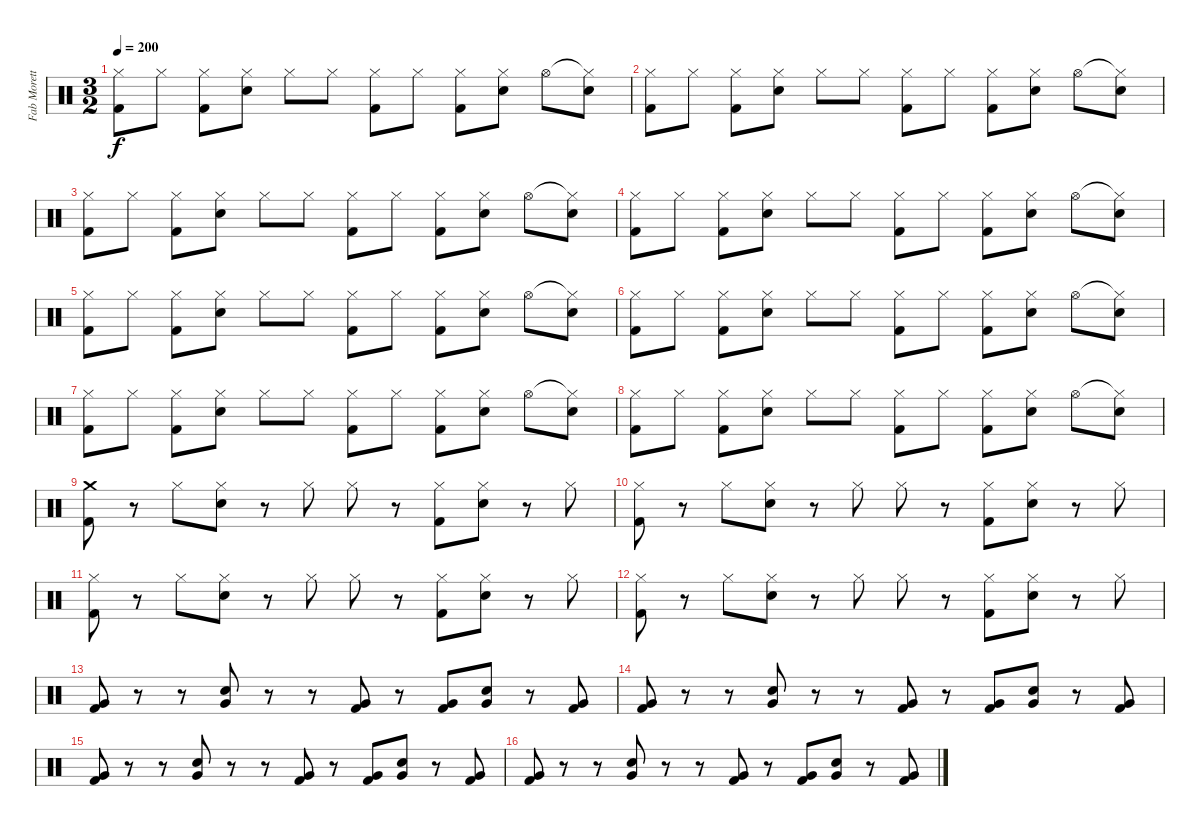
\track ("Fab Moretti" "Fab Morett") {instrument percussion}
\staff {score}
\articulation defaults
\ts (3 2)
\tempo 200
\clef neutral
\ks c
("Hi-Hat (closed)" "Kick (hit) 2").8{dy f} "Hi-Hat (closed)".8 ("Hi-Hat (closed)" "Kick (hit) 2").8 ("Hi-Hat (closed)" "Snare (hit) 2").8 "Hi-Hat (closed)".8 "Hi-Hat (closed)".8 ("Hi-Hat (closed)" "Kick (hit) 2").8 "Hi-Hat (closed)".8 ("Hi-Hat (closed)" "Kick (hit) 2").8 ("Hi-Hat (closed)" "Snare (hit) 2").8 "Hi-Hat (open)".8 ("Hi-Hat (closed)"{t} "Snare (hit) 2").8 |
("Hi-Hat (closed)" "Kick (hit) 2").8 "Hi-Hat (closed)".8 ("Hi-Hat (closed)" "Kick (hit) 2").8 ("Hi-Hat (closed)" "Snare (hit) 2").8 "Hi-Hat (closed)".8 "Hi-Hat (closed)".8 ("Hi-Hat (closed)" "Kick (hit) 2").8 "Hi-Hat (closed)".8 ("Hi-Hat (closed)" "Kick (hit) 2").8 ("Hi-Hat (closed)" "Snare (hit) 2").8 "Hi-Hat (open)".8 ("Hi-Hat (closed)"{t} "Snare (hit) 2").8 |
("Hi-Hat (closed)" "Kick (hit) 2").8 "Hi-Hat (closed)".8 ("Hi-Hat (closed)" "Kick (hit) 2").8 ("Hi-Hat (closed)" "Snare (hit) 2").8 "Hi-Hat (closed)".8 "Hi-Hat (closed)".8 ("Hi-Hat (closed)" "Kick (hit) 2").8 "Hi-Hat (closed)".8 ("Hi-Hat (closed)" "Kick (hit) 2").8 ("Hi-Hat (closed)" "Snare (hit) 2").8 "Hi-Hat (open)".8 ("Hi-Hat (closed)"{t} "Snare (hit) 2").8 |
("Hi-Hat (closed)" "Kick (hit) 2").8 "Hi-Hat (closed)".8 ("Hi-Hat (closed)" "Kick (hit) 2").8 ("Hi-Hat (closed)" "Snare (hit) 2").8 "Hi-Hat (closed)".8 "Hi-Hat (closed)".8 ("Hi-Hat (closed)" "Kick (hit) 2").8 "Hi-Hat (closed)".8 ("Hi-Hat (closed)" "Kick (hit) 2").8 ("Hi-Hat (closed)" "Snare (hit) 2").8 "Hi-Hat (open)".8 ("Hi-Hat (closed)"{t} "Snare (hit) 2").8 |
("Hi-Hat (closed)" "Kick (hit) 2").8 "Hi-Hat (closed)".8 ("Hi-Hat (closed)" "Kick (hit) 2").8 ("Hi-Hat (closed)" "Snare (hit) 2").8 "Hi-Hat (closed)".8 "Hi-Hat (closed)".8 ("Hi-Hat (closed)" "Kick (hit) 2").8 "Hi-Hat (closed)".8 ("Hi-Hat (closed)" "Kick (hit) 2").8 ("Hi-Hat (closed)" "Snare (hit) 2").8 "Hi-Hat (open)".8 ("Hi-Hat (closed)"{t} "Snare (hit) 2").8 |
("Hi-Hat (closed)" "Kick (hit) 2").8 "Hi-Hat (closed)".8 ("Hi-Hat (closed)" "Kick (hit) 2").8 ("Hi-Hat (closed)" "Snare (hit) 2").8 "Hi-Hat (closed)".8 "Hi-Hat (closed)".8 ("Hi-Hat (closed)" "Kick (hit) 2").8 "Hi-Hat (closed)".8 ("Hi-Hat (closed)" "Kick (hit) 2").8 ("Hi-Hat (closed)" "Snare (hit) 2").8 "Hi-Hat (open)".8 ("Hi-Hat (closed)"{t} "Snare (hit) 2").8 |
("Hi-Hat (closed)" "Kick (hit) 2").8 "Hi-Hat (closed)".8 ("Hi-Hat (closed)" "Kick (hit) 2").8 ("Hi-Hat (closed)" "Snare (hit) 2").8 "Hi-Hat (closed)".8 "Hi-Hat (closed)".8 ("Hi-Hat (closed)" "Kick (hit) 2").8 "Hi-Hat (closed)".8 ("Hi-Hat (closed)" "Kick (hit) 2").8 ("Hi-Hat (closed)" "Snare (hit) 2").8 "Hi-Hat (open)".8 ("Hi-Hat (closed)"{t} "Snare (hit) 2").8 |
("Hi-Hat (closed)" "Kick (hit) 2").8 "Hi-Hat (closed)".8 ("Hi-Hat (closed)" "Kick (hit) 2").8 ("Hi-Hat (closed)" "Snare (hit) 2").8 "Hi-Hat (closed)".8 "Hi-Hat (closed)".8 ("Hi-Hat (closed)" "Kick (hit) 2").8 "Hi-Hat (closed)".8 ("Hi-Hat (closed)" "Kick (hit) 2").8 ("Hi-Hat (closed)" "Snare (hit) 2").8 "Hi-Hat (open)".8 ("Hi-Hat (closed)"{t} "Snare (hit) 2").8 |
("Crash medium (hit)" "Kick (hit) 2").8 r.8 "Hi-Hat (closed)".8 ("Hi-Hat (closed)" "Snare (hit) 2").8 r.8 "Hi-Hat (closed)".8 "Hi-Hat (closed)".8 r.8 ("Hi-Hat (closed)" "Kick (hit) 2").8 ("Hi-Hat (closed)" "Snare (hit) 2").8 r.8 "Hi-Hat (closed)".8 |
("Hi-Hat (closed)" "Kick (hit) 2").8 r.8 "Hi-Hat (closed)".8 ("Hi-Hat (closed)" "Snare (hit) 2").8 r.8 "Hi-Hat (closed)".8 "Hi-Hat (closed)".8 r.8 ("Hi-Hat (closed)" "Kick (hit) 2").8 ("Hi-Hat (closed)" "Snare (hit) 2").8 r.8 "Hi-Hat (closed)".8 |
("Hi-Hat (closed)" "Kick (hit) 2").8 r.8 "Hi-Hat (closed)".8 ("Hi-Hat (closed)" "Snare (hit) 2").8 r.8 "Hi-Hat (closed)".8 "Hi-Hat (closed)".8 r.8 ("Hi-Hat (closed)" "Kick (hit) 2").8 ("Hi-Hat (closed)" "Snare (hit) 2").8 r.8 "Hi-Hat (closed)".8 |
("Hi-Hat (closed)" "Kick (hit) 2").8 r.8 "Hi-Hat (closed)".8 ("Hi-Hat (closed)" "Snare (hit) 2").8 r.8 "Hi-Hat (closed)".8 "Hi-Hat (closed)".8 r.8 ("Hi-Hat (closed)" "Kick (hit) 2").8 ("Hi-Hat (closed)" "Snare (hit) 2").8 r.8 "Hi-Hat (closed)".8 |
("Very Low Tom (hit)" "Kick (hit) 2").8 r.8 r.8 ("Very Low Tom (hit)" "Snare (hit) 2").8 r.8 r.8 ("Very Low Tom (hit)" "Kick (hit) 2").8 r.8 ("Very Low Tom (hit)" "Kick (hit) 2").8 ("Very Low Tom (hit)" "Snare (hit) 2").8 r.8 ("Very Low Tom (hit)" "Kick (hit) 2").8 |
("Very Low Tom (hit)" "Kick (hit) 2").8 r.8 r.8 ("Very Low Tom (hit)" "Snare (hit) 2").8 r.8 r.8 ("Very Low Tom (hit)" "Kick (hit) 2").8 r.8 ("Very Low Tom (hit)" "Kick (hit) 2").8 ("Very Low Tom (hit)" "Snare (hit) 2").8 r.8 ("Very Low Tom (hit)" "Kick (hit) 2").8 |
("Very Low Tom (hit)" "Kick (hit) 2").8 r.8 r.8 ("Very Low Tom (hit)" "Snare (hit) 2").8 r.8 r.8 ("Very Low Tom (hit)" "Kick (hit) 2").8 r.8 ("Very Low Tom (hit)" "Kick (hit) 2").8 ("Very Low Tom (hit)" "Snare (hit) 2").8 r.8 ("Very Low Tom (hit)" "Kick (hit) 2").8 |
("Very Low Tom (hit)" "Kick (hit) 2").8 r.8 r.8 ("Very Low Tom (hit)" "Snare (hit) 2").8 r.8 r.8 ("Very Low Tom (hit)" "Kick (hit) 2").8 r.8 ("Very Low Tom (hit)" "Kick (hit) 2").8 ("Very Low Tom (hit)" "Snare (hit) 2").8 r.8 ("Very Low Tom (hit)" "Kick (hit) 2").8
